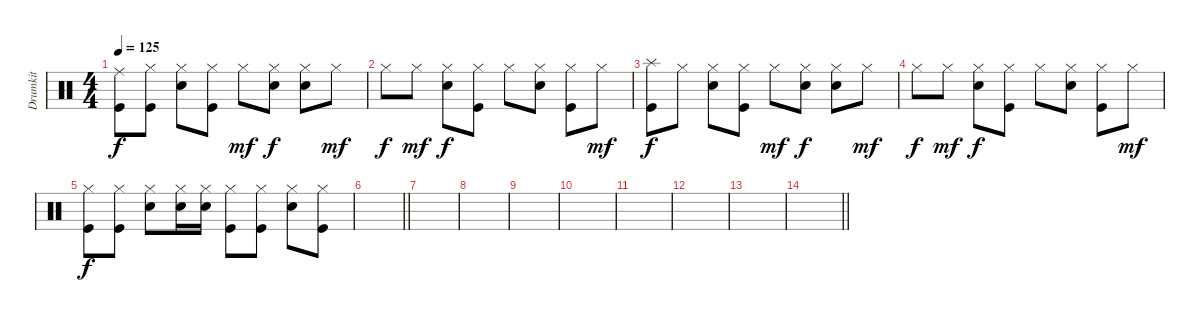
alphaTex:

\track ("Drumkit" "Drumkit") {instrument percussion}
\staff {score}
\articulation defaults
\ts (4 4)
\tempo 125
\clef neutral
\ks c
("Kick (hit)" "Ride (middle)").8{dy f} ("Kick (hit)" "Hi-Hat (closed)").8 ("Snare (hit) 2" "Hi-Hat (closed)").8 ("Kick (hit)" "Hi-Hat (closed)").8 "Hi-Hat (closed)".8{dy mf} ("Snare (hit) 2" "Hi-Hat (closed)").8{dy f} ("Snare (hit) 2" "Hi-Hat (closed)").8 "Hi-Hat (closed)".8{dy mf} |
"Hi-Hat (closed)".8{dy f} "Hi-Hat (closed)".8{dy mf} ("Snare (hit) 2" "Hi-Hat (closed)").8{dy f} ("Kick (hit)" "Hi-Hat (closed)").8 "Hi-Hat (closed)".8 ("Snare (hit) 2" "Hi-Hat (closed)").8 ("Kick (hit)" "Hi-Hat (closed)").8 "Hi-Hat (closed)".8{dy mf} |
("Kick (hit)" "Splash (hit)").8{dy f} "Hi-Hat (closed)".8 ("Snare (hit) 2" "Hi-Hat (closed)").8 ("Kick (hit)" "Hi-Hat (closed)").8 "Hi-Hat (closed)".8{dy mf} ("Snare (hit) 2" "Hi-Hat (closed)").8{dy f} ("Snare (hit) 2" "Hi-Hat (closed)").8 "Hi-Hat (closed)".8{dy mf} |
"Hi-Hat (closed)".8{dy f} "Hi-Hat (closed)".8{dy mf} ("Snare (hit) 2" "Hi-Hat (closed)").8{dy f} ("Kick (hit)" "Hi-Hat (closed)").8 "Hi-Hat (closed)".8 ("Snare (hit) 2" "Hi-Hat (closed)").8 ("Kick (hit)" "Hi-Hat (closed)").8 "Hi-Hat (closed)".8{dy mf} |
("Kick (hit)" "Hi-Hat (closed)").8{dy f} ("Kick (hit)" "Hi-Hat (closed)").8 ("Snare (hit) 2" "Hi-Hat (closed)").8 ("Snare (hit) 2" "Hi-Hat (closed)").16 ("Snare (hit) 2" "Hi-Hat (closed)").16 ("Kick (hit)" "Hi-Hat (closed)").8 ("Kick (hit)" "Hi-Hat (closed)").8 ("Snare (hit) 2" "Hi-Hat (closed)").8 ("Kick (hit)" "Hi-Hat (closed)").8 |
\barLineRight lightlight
|
|
|
|
|
|
|
|
\barLineRight lightlight
